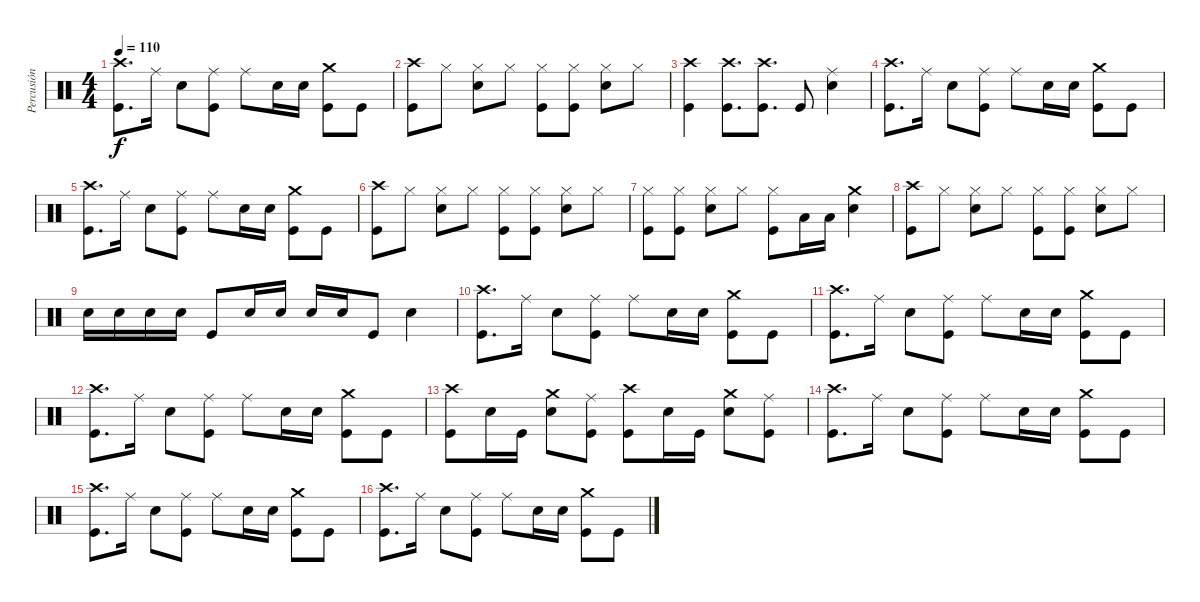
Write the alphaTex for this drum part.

\track ("Percusión" "Percusión") {instrument percussion}
\staff {score}
\articulation defaults
\ts (4 4)
\tempo 110
\clef neutral
\ks c
("Crash high (hit)" "Kick (hit)").8{d dy f} "Ride (middle)".16 "Snare (hit) 2".8 ("Ride (middle)" "Kick (hit)").8 "Ride (middle)".8 "Snare (hit) 2".16 "Snare (hit) 2".16 ("Crash medium (hit)" "Kick (hit)").8 "Kick (hit)".8 |
("Crash high (hit)" "Kick (hit)").8 "Hi-Hat (closed)".8 ("Hi-Hat (closed)" "Snare (hit) 2").8 "Hi-Hat (closed)".8 ("Hi-Hat (closed)" "Kick (hit)").8 ("Hi-Hat (closed)" "Kick (hit)").8 ("Hi-Hat (closed)" "Snare (hit) 2").8 "Hi-Hat (closed)".8 |
("Crash high (hit)" "Kick (hit)").4 ("Crash high (hit)" "Kick (hit)").8{d} ("Crash high (hit)" "Kick (hit)").8{d} "Kick (hit)".8 ("Ride (middle)" "Snare (hit) 2").4 |
("Crash high (hit)" "Kick (hit)").8{d} "Ride (middle)".16 "Snare (hit) 2".8 ("Ride (middle)" "Kick (hit)").8 "Ride (middle)".8 "Snare (hit) 2".16 "Snare (hit) 2".16 ("Crash medium (hit)" "Kick (hit)").8 "Kick (hit)".8 |
("Crash high (hit)" "Kick (hit)").8{d} "Ride (middle)".16 "Snare (hit) 2".8 ("Ride (middle)" "Kick (hit)").8 "Ride (middle)".8 "Snare (hit) 2".16 "Snare (hit) 2".16 ("Crash medium (hit)" "Kick (hit)").8 "Kick (hit)".8 |
("Crash high (hit)" "Kick (hit)").8 "Hi-Hat (closed)".8 ("Hi-Hat (closed)" "Snare (hit) 2").8 "Hi-Hat (closed)".8 ("Hi-Hat (closed)" "Kick (hit)").8 ("Hi-Hat (closed)" "Kick (hit)").8 ("Hi-Hat (closed)" "Snare (hit) 2").8 "Hi-Hat (closed)".8 |
("Hi-Hat (closed)" "Kick (hit)").8 ("Hi-Hat (closed)" "Kick (hit)").8 ("Hi-Hat (closed)" "Snare (hit) 2").8 "Hi-Hat (closed)".8 ("Hi-Hat (closed)" "Kick (hit)").8 "Low Tom (hit)".16 "Low Tom (hit)".16 ("Crash medium (hit)" "Snare (hit) 2").4 |
("Crash high (hit)" "Kick (hit)").8 "Hi-Hat (closed)".8 ("Hi-Hat (closed)" "Snare (hit) 2").8 "Hi-Hat (closed)".8 ("Hi-Hat (closed)" "Kick (hit)").8 ("Hi-Hat (closed)" "Kick (hit)").8 ("Hi-Hat (closed)" "Snare (hit) 2").8 "Hi-Hat (closed)".8 |
"Snare (hit) 2".16 "Snare (hit) 2".16 "Snare (hit) 2".16 "Snare (hit) 2".16 "Kick (hit)".8 "Snare (hit) 2".16 "Snare (hit) 2".16 "Snare (hit) 2".16 "Snare (hit) 2".16 "Kick (hit)".8 "Snare (hit) 2".4 |
("Crash high (hit)" "Kick (hit)").8{d} "Ride (middle)".16 "Snare (hit) 2".8 ("Ride (middle)" "Kick (hit)").8 "Ride (middle)".8 "Snare (hit) 2".16 "Snare (hit) 2".16 ("Crash medium (hit)" "Kick (hit)").8 "Kick (hit)".8 |
("Crash high (hit)" "Kick (hit)").8{d} "Ride (middle)".16 "Snare (hit) 2".8 ("Ride (middle)" "Kick (hit)").8 "Ride (middle)".8 "Snare (hit) 2".16 "Snare (hit) 2".16 ("Crash medium (hit)" "Kick (hit)").8 "Kick (hit)".8 |
("Crash high (hit)" "Kick (hit)").8{d} "Ride (middle)".16 "Snare (hit) 2".8 ("Ride (middle)" "Kick (hit)").8 "Ride (middle)".8 "Snare (hit) 2".16 "Snare (hit) 2".16 ("Crash medium (hit)" "Kick (hit)").8 "Kick (hit)".8 |
("Crash high (hit)" "Kick (hit)").8 "Snare (hit) 2".16 "Kick (hit)".16 ("Crash medium (hit)" "Snare (hit) 2").8 ("Ride (middle)" "Kick (hit)").8 ("Crash high (hit)" "Kick (hit)").8 "Snare (hit) 2".16 "Kick (hit)".16 ("Crash medium (hit)" "Snare (hit) 2").8 ("Ride (middle)" "Kick (hit)").8 |
("Crash high (hit)" "Kick (hit)").8{d} "Ride (middle)".16 "Snare (hit) 2".8 ("Ride (middle)" "Kick (hit)").8 "Ride (middle)".8 "Snare (hit) 2".16 "Snare (hit) 2".16 ("Crash medium (hit)" "Kick (hit)").8 "Kick (hit)".8 |
("Crash high (hit)" "Kick (hit)").8{d} "Ride (middle)".16 "Snare (hit) 2".8 ("Ride (middle)" "Kick (hit)").8 "Ride (middle)".8 "Snare (hit) 2".16 "Snare (hit) 2".16 ("Crash medium (hit)" "Kick (hit)").8 "Kick (hit)".8 |
("Crash high (hit)" "Kick (hit)").8{d} "Ride (middle)".16 "Snare (hit) 2".8 ("Ride (middle)" "Kick (hit)").8 "Ride (middle)".8 "Snare (hit) 2".16 "Snare (hit) 2".16 ("Crash medium (hit)" "Kick (hit)").8 "Kick (hit)".8
